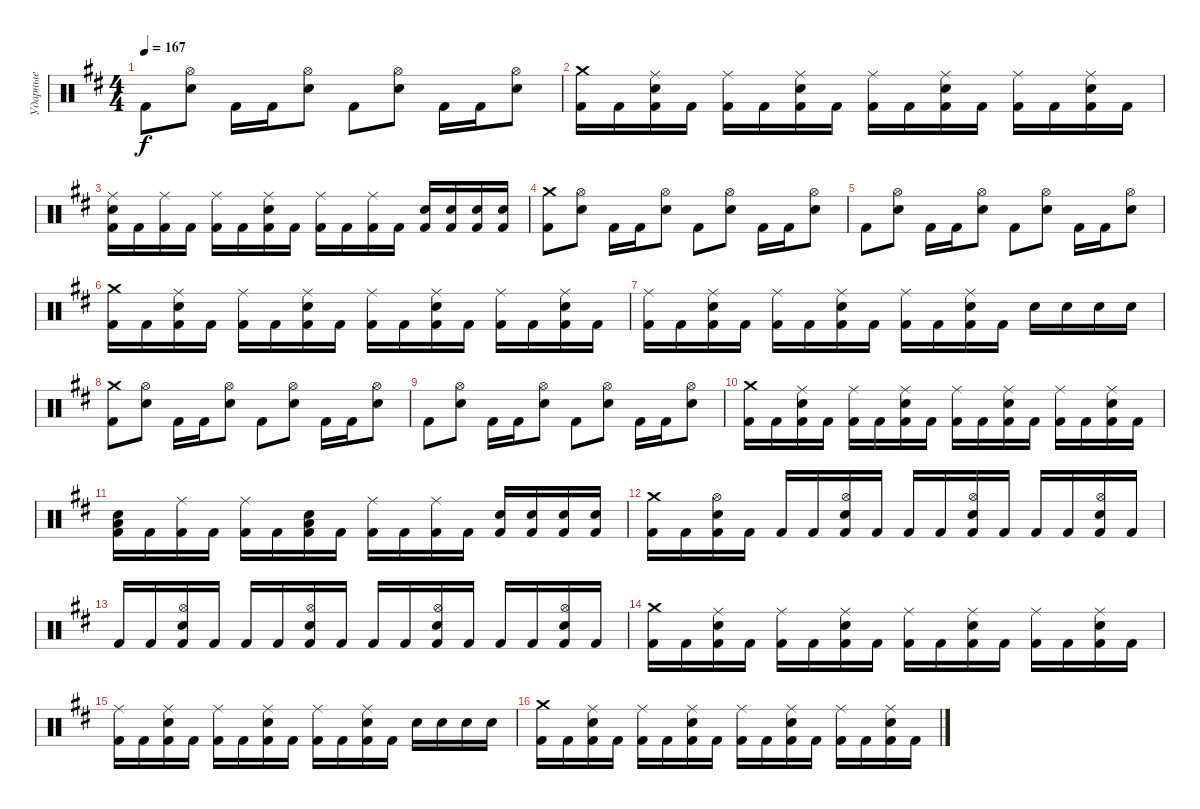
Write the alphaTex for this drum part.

\track ("Ударные" "Ударные") {instrument percussion}
\staff {score}
\articulation defaults
\ts (4 4)
\tempo 167
\clef neutral
\ks bminor "Kick (hit) 2".8{dy f}
("Hi-Hat (open)" "Snare (hit) 2").8 "Kick (hit) 2".16 "Kick (hit) 2".16 ("Hi-Hat (open)" "Snare (hit) 2").8 "Kick (hit) 2".8 ("Hi-Hat (open)" "Snare (hit) 2").8 "Kick (hit) 2".16 "Kick (hit) 2".16 ("Hi-Hat (open)" "Snare (hit) 2").8 |
("Kick (hit) 2" "Crash medium (hit)").16 "Kick (hit) 2".16 ("Snare (hit) 2" "Kick (hit) 2" "Ride (middle)").16 "Kick (hit) 2".16 ("Kick (hit) 2" "Ride (middle)").16 "Kick (hit) 2".16 ("Snare (hit) 2" "Kick (hit) 2" "Ride (middle)").16 "Kick (hit) 2".16 ("Kick (hit) 2" "Ride (middle)").16 "Kick (hit) 2".16 ("Snare (hit) 2" "Kick (hit) 2" "Ride (middle)").16 "Kick (hit) 2".16 ("Kick (hit) 2" "Ride (middle)").16 "Kick (hit) 2".16 ("Snare (hit) 2" "Kick (hit) 2" "Ride (middle)").16 "Kick (hit) 2".16 |
("Snare (hit) 2" "Kick (hit) 2" "Ride (middle)").16 "Kick (hit) 2".16 ("Kick (hit) 2" "Ride (middle)").16 "Kick (hit) 2".16 ("Kick (hit) 2" "Ride (middle)").16 "Kick (hit) 2".16 ("Snare (hit) 2" "Kick (hit) 2" "Ride (middle)").16 "Kick (hit) 2".16 ("Kick (hit) 2" "Ride (middle)").16 "Kick (hit) 2".16 ("Kick (hit) 2" "Ride (middle)").16 "Kick (hit) 2".16 ("Kick (hit) 2" "Snare (hit) 2").16 ("Kick (hit) 2" "Snare (hit) 2").16 ("Kick (hit) 2" "Snare (hit) 2").16 ("Kick (hit) 2" "Snare (hit) 2").16 |
("Crash medium (hit)" "Kick (hit) 2").8 ("Hi-Hat (open)" "Snare (hit) 2").8 "Kick (hit) 2".16 "Kick (hit) 2".16 ("Hi-Hat (open)" "Snare (hit) 2").8 "Kick (hit) 2".8 ("Hi-Hat (open)" "Snare (hit) 2").8 "Kick (hit) 2".16 "Kick (hit) 2".16 ("Hi-Hat (open)" "Snare (hit) 2").8 |
"Kick (hit) 2".8 ("Hi-Hat (open)" "Snare (hit) 2").8 "Kick (hit) 2".16 "Kick (hit) 2".16 ("Hi-Hat (open)" "Snare (hit) 2").8 "Kick (hit) 2".8 ("Hi-Hat (open)" "Snare (hit) 2").8 "Kick (hit) 2".16 "Kick (hit) 2".16 ("Hi-Hat (open)" "Snare (hit) 2").8 |
("Kick (hit) 2" "Crash medium (hit)").16 "Kick (hit) 2".16 ("Snare (hit) 2" "Kick (hit) 2" "Ride (middle)").16 "Kick (hit) 2".16 ("Kick (hit) 2" "Ride (middle)").16 "Kick (hit) 2".16 ("Snare (hit) 2" "Kick (hit) 2" "Ride (middle)").16 "Kick (hit) 2".16 ("Kick (hit) 2" "Ride (middle)").16 "Kick (hit) 2".16 ("Snare (hit) 2" "Kick (hit) 2" "Ride (middle)").16 "Kick (hit) 2".16 ("Kick (hit) 2" "Ride (middle)").16 "Kick (hit) 2".16 ("Snare (hit) 2" "Kick (hit) 2" "Ride (middle)").16 "Kick (hit) 2".16 |
("Kick (hit) 2" "Ride (middle)").16 "Kick (hit) 2".16 ("Snare (hit) 2" "Kick (hit) 2" "Ride (middle)").16 "Kick (hit) 2".16 ("Kick (hit) 2" "Ride (middle)").16 "Kick (hit) 2".16 ("Snare (hit) 2" "Kick (hit) 2" "Ride (middle)").16 "Kick (hit) 2".16 ("Kick (hit) 2" "Ride (middle)").16 "Kick (hit) 2".16 ("Snare (hit) 2" "Kick (hit) 2" "Ride (middle)").16 "Kick (hit) 2".16 "Snare (hit) 2".16 "Snare (hit) 2".16 "Snare (hit) 2".16 "Snare (hit) 2".16 |
("Crash medium (hit)" "Kick (hit) 2").8 ("Hi-Hat (open)" "Snare (hit) 2").8 "Kick (hit) 2".16 "Kick (hit) 2".16 ("Hi-Hat (open)" "Snare (hit) 2").8 "Kick (hit) 2".8 ("Hi-Hat (open)" "Snare (hit) 2").8 "Kick (hit) 2".16 "Kick (hit) 2".16 ("Hi-Hat (open)" "Snare (hit) 2").8 |
"Kick (hit) 2".8 ("Hi-Hat (open)" "Snare (hit) 2").8 "Kick (hit) 2".16 "Kick (hit) 2".16 ("Hi-Hat (open)" "Snare (hit) 2").8 "Kick (hit) 2".8 ("Hi-Hat (open)" "Snare (hit) 2").8 "Kick (hit) 2".16 "Kick (hit) 2".16 ("Hi-Hat (open)" "Snare (hit) 2").8 |
("Kick (hit) 2" "Crash medium (hit)").16 "Kick (hit) 2".16 ("Snare (hit) 2" "Kick (hit) 2" "Ride (middle)").16 "Kick (hit) 2".16 ("Kick (hit) 2" "Ride (middle)").16 "Kick (hit) 2".16 ("Snare (hit) 2" "Kick (hit) 2" "Ride (middle)").16 "Kick (hit) 2".16 ("Kick (hit) 2" "Ride (middle)").16 "Kick (hit) 2".16 ("Snare (hit) 2" "Kick (hit) 2" "Ride (middle)").16 "Kick (hit) 2".16 ("Kick (hit) 2" "Ride (middle)").16 "Kick (hit) 2".16 ("Snare (hit) 2" "Kick (hit) 2" "Ride (middle)").16 "Kick (hit) 2".16 |
("Snare (hit) 2" "Kick (hit) 2" "Low Tom (hit)").16 "Kick (hit) 2".16 ("Kick (hit) 2" "Ride (middle)").16 "Kick (hit) 2".16 ("Kick (hit) 2" "Ride (middle)").16 "Kick (hit) 2".16 ("Snare (hit) 2" "Kick (hit) 2" "Low Floor Tom (hit)").16 "Kick (hit) 2".16 ("Kick (hit) 2" "Ride (middle)").16 "Kick (hit) 2".16 ("Kick (hit) 2" "Ride (middle)").16 "Kick (hit) 2".16 ("Kick (hit) 2" "Snare (hit) 2").16 ("Kick (hit) 2" "Snare (hit) 2").16 ("Kick (hit) 2" "Snare (hit) 2").16 ("Kick (hit) 2" "Snare (hit) 2").16 |
("Kick (hit) 2" "Crash medium (hit)").16 "Kick (hit) 2".16 ("Kick (hit) 2" "Snare (hit) 2" "Hi-Hat (open)").16 "Kick (hit) 2".16 "Kick (hit) 2".16 "Kick (hit) 2".16 ("Kick (hit) 2" "Snare (hit) 2" "Hi-Hat (open)").16 "Kick (hit) 2".16 "Kick (hit) 2".16 "Kick (hit) 2".16 ("Kick (hit) 2" "Snare (hit) 2" "Hi-Hat (open)").16 "Kick (hit) 2".16 "Kick (hit) 2".16 "Kick (hit) 2".16 ("Kick (hit) 2" "Snare (hit) 2" "Hi-Hat (open)").16 "Kick (hit) 2".16 |
"Kick (hit) 2".16 "Kick (hit) 2".16 ("Kick (hit) 2" "Snare (hit) 2" "Hi-Hat (open)").16 "Kick (hit) 2".16 "Kick (hit) 2".16 "Kick (hit) 2".16 ("Kick (hit) 2" "Snare (hit) 2" "Hi-Hat (open)").16 "Kick (hit) 2".16 "Kick (hit) 2".16 "Kick (hit) 2".16 ("Kick (hit) 2" "Snare (hit) 2" "Hi-Hat (open)").16 "Kick (hit) 2".16 "Kick (hit) 2".16 "Kick (hit) 2".16 ("Kick (hit) 2" "Snare (hit) 2" "Hi-Hat (open)").16 "Kick (hit) 2".16 |
("Kick (hit) 2" "Crash medium (hit)").16 "Kick (hit) 2".16 ("Snare (hit) 2" "Kick (hit) 2" "Ride (middle)").16 "Kick (hit) 2".16 ("Kick (hit) 2" "Ride (middle)").16 "Kick (hit) 2".16 ("Snare (hit) 2" "Kick (hit) 2" "Ride (middle)").16 "Kick (hit) 2".16 ("Kick (hit) 2" "Ride (middle)").16 "Kick (hit) 2".16 ("Snare (hit) 2" "Kick (hit) 2" "Ride (middle)").16 "Kick (hit) 2".16 ("Kick (hit) 2" "Ride (middle)").16 "Kick (hit) 2".16 ("Snare (hit) 2" "Kick (hit) 2" "Ride (middle)").16 "Kick (hit) 2".16 |
("Kick (hit) 2" "Ride (middle)").16 "Kick (hit) 2".16 ("Snare (hit) 2" "Kick (hit) 2" "Ride (middle)").16 "Kick (hit) 2".16 ("Kick (hit) 2" "Ride (middle)").16 "Kick (hit) 2".16 ("Snare (hit) 2" "Kick (hit) 2" "Ride (middle)").16 "Kick (hit) 2".16 ("Kick (hit) 2" "Ride (middle)").16 "Kick (hit) 2".16 ("Snare (hit) 2" "Kick (hit) 2" "Ride (middle)").16 "Kick (hit) 2".16 "Snare (hit) 2".16 "Snare (hit) 2".16 "Snare (hit) 2".16 "Snare (hit) 2".16 |
("Kick (hit) 2" "Crash medium (hit)").16 "Kick (hit) 2".16 ("Snare (hit) 2" "Kick (hit) 2" "Ride (middle)").16 "Kick (hit) 2".16 ("Kick (hit) 2" "Ride (middle)").16 "Kick (hit) 2".16 ("Snare (hit) 2" "Kick (hit) 2" "Ride (middle)").16 "Kick (hit) 2".16 ("Kick (hit) 2" "Ride (middle)").16 "Kick (hit) 2".16 ("Snare (hit) 2" "Kick (hit) 2" "Ride (middle)").16 "Kick (hit) 2".16 ("Kick (hit) 2" "Ride (middle)").16 "Kick (hit) 2".16 ("Snare (hit) 2" "Kick (hit) 2" "Ride (middle)").16 "Kick (hit) 2".16
